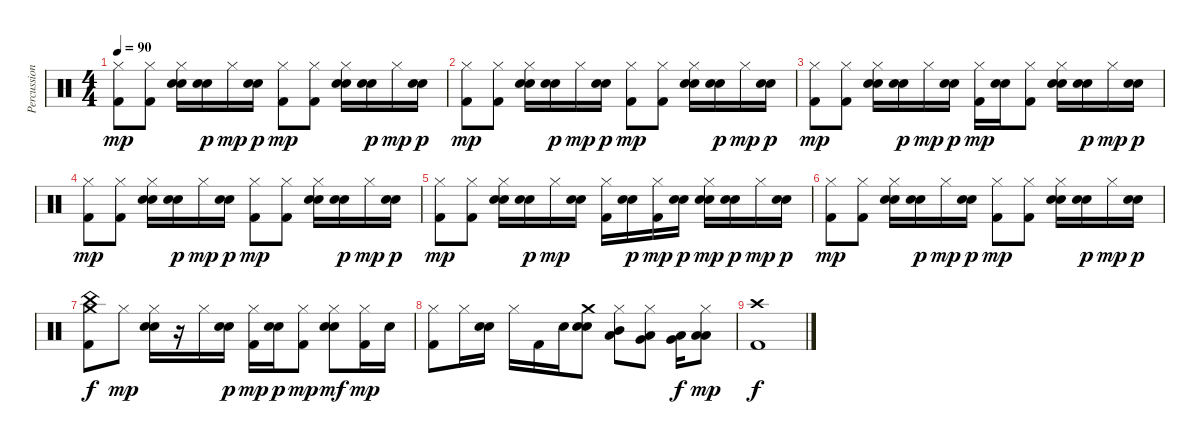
\track ("Percussion" "Percussion") {instrument percussion}
\staff {score}
\articulation defaults
\ts (4 4)
\tempo 90
\clef neutral
\ks c
("Hi-Hat (closed)" "Kick (hit) 2").8{dy mp} ("Hi-Hat (closed)" "Kick (hit) 2").8 ("Hi-Hat (closed)" "Electric Snare (hit)" "Snare (hit) 2").16 ("Electric Snare (hit)" "Snare (hit) 2").16{dy p} "Hi-Hat (closed)".16{dy mp} ("Electric Snare (hit)" "Snare (hit) 2").16{dy p} ("Hi-Hat (closed)" "Kick (hit) 2").8{dy mp} ("Hi-Hat (closed)" "Kick (hit) 2").8 ("Hi-Hat (closed)" "Electric Snare (hit)" "Snare (hit) 2").16 ("Electric Snare (hit)" "Snare (hit) 2").16{dy p} "Hi-Hat (closed)".16{dy mp} ("Electric Snare (hit)" "Snare (hit) 2").16{dy p} |
("Hi-Hat (closed)" "Kick (hit) 2").8{dy mp} ("Hi-Hat (closed)" "Kick (hit) 2").8 ("Hi-Hat (closed)" "Electric Snare (hit)" "Snare (hit) 2").16 ("Electric Snare (hit)" "Snare (hit) 2").16{dy p} "Hi-Hat (closed)".16{dy mp} ("Electric Snare (hit)" "Snare (hit) 2").16{dy p} ("Hi-Hat (closed)" "Kick (hit) 2").8{dy mp} ("Hi-Hat (closed)" "Kick (hit) 2").8 ("Hi-Hat (closed)" "Electric Snare (hit)" "Snare (hit) 2").16 ("Electric Snare (hit)" "Snare (hit) 2").16{dy p} "Hi-Hat (closed)".16{dy mp} ("Electric Snare (hit)" "Snare (hit) 2").16{dy p} |
("Hi-Hat (closed)" "Kick (hit) 2").8{dy mp} ("Hi-Hat (closed)" "Kick (hit) 2").8 ("Hi-Hat (closed)" "Electric Snare (hit)" "Snare (hit) 2").16 ("Electric Snare (hit)" "Snare (hit) 2").16{dy p} "Hi-Hat (closed)".16{dy mp} ("Electric Snare (hit)" "Snare (hit) 2").16{dy p} ("Hi-Hat (closed)" "Kick (hit) 2").16{dy mp} ("Electric Snare (hit)" "Snare (hit) 2").16 ("Hi-Hat (closed)" "Kick (hit) 2").8 ("Hi-Hat (closed)" "Electric Snare (hit)" "Snare (hit) 2").16 ("Electric Snare (hit)" "Snare (hit) 2").16{dy p} "Hi-Hat (closed)".16{dy mp} ("Electric Snare (hit)" "Snare (hit) 2").16{dy p} |
("Hi-Hat (closed)" "Kick (hit) 2").8{dy mp} ("Hi-Hat (closed)" "Kick (hit) 2").8 ("Hi-Hat (closed)" "Electric Snare (hit)" "Snare (hit) 2").16 ("Electric Snare (hit)" "Snare (hit) 2").16{dy p} "Hi-Hat (closed)".16{dy mp} ("Electric Snare (hit)" "Snare (hit) 2").16{dy p} ("Hi-Hat (closed)" "Kick (hit) 2").8{dy mp} ("Hi-Hat (closed)" "Kick (hit) 2").8 ("Hi-Hat (closed)" "Electric Snare (hit)" "Snare (hit) 2").16 ("Electric Snare (hit)" "Snare (hit) 2").16{dy p} "Hi-Hat (closed)".16{dy mp} ("Electric Snare (hit)" "Snare (hit) 2").16{dy p} |
("Hi-Hat (closed)" "Kick (hit) 2").8{dy mp} ("Hi-Hat (closed)" "Kick (hit) 2").8 ("Hi-Hat (closed)" "Electric Snare (hit)" "Snare (hit) 2").16 ("Electric Snare (hit)" "Snare (hit) 2").16{dy p} "Hi-Hat (closed)".16{dy mp} ("Electric Snare (hit)" "Snare (hit) 2").16 ("Hi-Hat (closed)" "Kick (hit) 2").16 ("Electric Snare (hit)" "Snare (hit) 2").16{dy p} ("Hi-Hat (closed)" "Kick (hit) 2").16{dy mp} ("Electric Snare (hit)" "Snare (hit) 2").16{dy p} ("Hi-Hat (closed)" "Electric Snare (hit)" "Snare (hit) 2").16{dy mp} ("Electric Snare (hit)" "Snare (hit) 2").16{dy p} "Hi-Hat (closed)".16{dy mp} ("Electric Snare (hit)" "Snare (hit) 2").16{dy p} |
("Hi-Hat (closed)" "Kick (hit) 2").8{dy mp} ("Hi-Hat (closed)" "Kick (hit) 2").8 ("Hi-Hat (closed)" "Electric Snare (hit)" "Snare (hit) 2").16 ("Electric Snare (hit)" "Snare (hit) 2").16{dy p} "Hi-Hat (closed)".16{dy mp} ("Electric Snare (hit)" "Snare (hit) 2").16{dy p} ("Hi-Hat (closed)" "Kick (hit) 2").8{dy mp} ("Hi-Hat (closed)" "Kick (hit) 2").8 ("Hi-Hat (closed)" "Electric Snare (hit)" "Snare (hit) 2").16 ("Electric Snare (hit)" "Snare (hit) 2").16{dy p} "Hi-Hat (closed)".16{dy mp} ("Electric Snare (hit)" "Snare (hit) 2").16{dy p} |
("China (hit)" "Crash medium (hit)" "Kick (hit) 2").8{dy f} "Hi-Hat (closed)".8{dy mp} ("Hi-Hat (closed)" "Electric Snare (hit)" "Snare (hit) 2").16 r.16 "Hi-Hat (closed)".16 ("Electric Snare (hit)" "Snare (hit) 2").16{dy p} ("Hi-Hat (closed)" "Kick (hit) 2").16{dy mp} ("Electric Snare (hit)" "Snare (hit) 2").16{dy p} ("Hi-Hat (closed)" "Kick (hit) 2").8{dy mp} ("Hi-Hat (closed)" "Electric Snare (hit)" "Snare (hit) 2").8{dy mf} ("Hi-Hat (closed)" "Kick (hit) 2").16{dy mp} "Snare (hit) 2".16 |
("Hi-Hat (closed)" "Kick (hit) 2").8 "Hi-Hat (closed)".16 ("Electric Snare (hit)" "Snare (hit) 2").16 "Hi-Hat (closed)".16 "Kick (hit) 2".16 "Snare (hit) 2".16 ("Crash medium (hit)" "Electric Snare (hit)" "Snare (hit) 2").8 ("Hi-Hat (closed)" "Mid Tom (hit)" "Low Tom (hit)").8 ("Hi-Hat (closed)" "Low Tom (hit)" "Very Low Tom (hit)").8 ("Very Low Tom (hit)" "Low Floor Tom (hit)").16{dy f} ("Hi-Hat (closed)" "Low Floor Tom (hit)" "Low Floor Tom (hit)").8{dy mp} |
("Crash high (hit)" "Kick (hit) 2").1{dy f}
